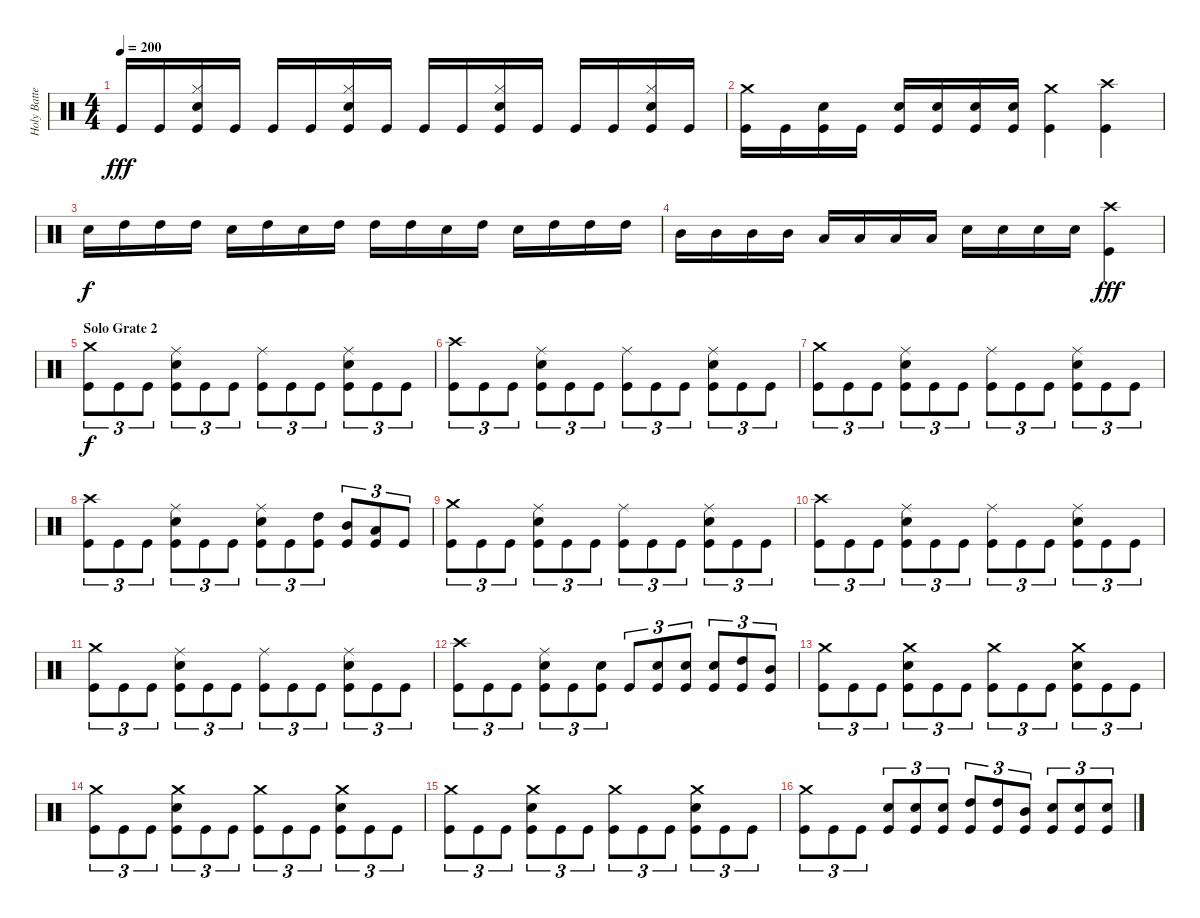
\track ("Holy Batteur" "Holy Batte") {instrument percussion}
\staff {score}
\articulation defaults
\ts (4 4)
\tempo 200
\clef neutral
\ks c "Kick (hit)".16{dy fff} "Kick (hit)".16
("Hi-Hat (closed)" "Electric Snare (hit)" "Kick (hit)").16 "Kick (hit)".16 "Kick (hit)".16 "Kick (hit)".16 ("Hi-Hat (closed)" "Electric Snare (hit)" "Kick (hit)").16 "Kick (hit)".16 "Kick (hit)".16 "Kick (hit)".16 ("Hi-Hat (closed)" "Electric Snare (hit)" "Kick (hit)").16 "Kick (hit)".16 "Kick (hit)".16 "Kick (hit)".16 ("Hi-Hat (closed)" "Electric Snare (hit)" "Kick (hit)").16 "Kick (hit)".16 |
("Crash medium (hit)" "Kick (hit)").16 "Kick (hit)".16 ("Electric Snare (hit)" "Kick (hit)").16 "Kick (hit)".16 ("Electric Snare (hit)" "Kick (hit)").16 ("Electric Snare (hit)" "Kick (hit)").16 ("Electric Snare (hit)" "Kick (hit)").16 ("Electric Snare (hit)" "Kick (hit)").16 ("Crash medium (hit)" "Kick (hit)").4 ("Crash high (hit)" "Kick (hit)").4 |
"Electric Snare (hit)".16{dy f} "High Tom (hit)".16 "High Tom (hit)".16 "High Tom (hit)".16 "Electric Snare (hit)".16 "High Tom (hit)".16 "Electric Snare (hit)".16 "High Tom (hit)".16 "High Tom (hit)".16 "High Tom (hit)".16 "Electric Snare (hit)".16 "High Tom (hit)".16 "Electric Snare (hit)".16 "High Tom (hit)".16 "High Tom (hit)".16 "High Tom (hit)".16 |
"Mid Tom (hit)".16 "Mid Tom (hit)".16 "Mid Tom (hit)".16 "Mid Tom (hit)".16 "Low Tom (hit)".16 "Low Tom (hit)".16 "Low Tom (hit)".16 "Low Tom (hit)".16 "Electric Snare (hit)".16 "Electric Snare (hit)".16 "Electric Snare (hit)".16 "Electric Snare (hit)".16 ("Crash high (hit)" "Kick (hit)").4{dy fff} |
\section ("" "Solo Grate 2")
("Crash medium (hit)" "Kick (hit)").8{tu (3 2) dy f} "Kick (hit)".8{tu (3 2)} "Kick (hit)".8{tu (3 2)} ("Ride (middle)" "Electric Snare (hit)" "Kick (hit)").8{tu (3 2)} "Kick (hit)".8{tu (3 2)} "Kick (hit)".8{tu (3 2)} ("Ride (middle)" "Kick (hit)").8{tu (3 2)} "Kick (hit)".8{tu (3 2)} "Kick (hit)".8{tu (3 2)} ("Ride (middle)" "Electric Snare (hit)" "Kick (hit)").8{tu (3 2)} "Kick (hit)".8{tu (3 2)} "Kick (hit)".8{tu (3 2)} |
("Crash high (hit)" "Kick (hit)").8{tu (3 2)} "Kick (hit)".8{tu (3 2)} "Kick (hit)".8{tu (3 2)} ("Ride (middle)" "Electric Snare (hit)" "Kick (hit)").8{tu (3 2)} "Kick (hit)".8{tu (3 2)} "Kick (hit)".8{tu (3 2)} ("Ride (middle)" "Kick (hit)").8{tu (3 2)} "Kick (hit)".8{tu (3 2)} "Kick (hit)".8{tu (3 2)} ("Ride (middle)" "Electric Snare (hit)" "Kick (hit)").8{tu (3 2)} "Kick (hit)".8{tu (3 2)} "Kick (hit)".8{tu (3 2)} |
("Crash medium (hit)" "Kick (hit)").8{tu (3 2)} "Kick (hit)".8{tu (3 2)} "Kick (hit)".8{tu (3 2)} ("Ride (middle)" "Electric Snare (hit)" "Kick (hit)").8{tu (3 2)} "Kick (hit)".8{tu (3 2)} "Kick (hit)".8{tu (3 2)} ("Ride (middle)" "Kick (hit)").8{tu (3 2)} "Kick (hit)".8{tu (3 2)} "Kick (hit)".8{tu (3 2)} ("Ride (middle)" "Electric Snare (hit)" "Kick (hit)").8{tu (3 2)} "Kick (hit)".8{tu (3 2)} "Kick (hit)".8{tu (3 2)} |
("Crash high (hit)" "Kick (hit)").8{tu (3 2)} "Kick (hit)".8{tu (3 2)} "Kick (hit)".8{tu (3 2)} ("Ride (middle)" "Electric Snare (hit)" "Kick (hit)").8{tu (3 2)} "Kick (hit)".8{tu (3 2)} "Kick (hit)".8{tu (3 2)} ("Ride (middle)" "Electric Snare (hit)" "Kick (hit)").8{tu (3 2)} "Kick (hit)".8{tu (3 2)} ("High Tom (hit)" "Kick (hit)").8{tu (3 2)} ("Mid Tom (hit)" "Kick (hit)").8{tu (3 2)} ("Low Tom (hit)" "Kick (hit)").8{tu (3 2)} "Kick (hit)".8{tu (3 2)} |
("Crash medium (hit)" "Kick (hit)").8{tu (3 2)} "Kick (hit)".8{tu (3 2)} "Kick (hit)".8{tu (3 2)} ("Ride (middle)" "Electric Snare (hit)" "Kick (hit)").8{tu (3 2)} "Kick (hit)".8{tu (3 2)} "Kick (hit)".8{tu (3 2)} ("Ride (middle)" "Kick (hit)").8{tu (3 2)} "Kick (hit)".8{tu (3 2)} "Kick (hit)".8{tu (3 2)} ("Ride (middle)" "Electric Snare (hit)" "Kick (hit)").8{tu (3 2)} "Kick (hit)".8{tu (3 2)} "Kick (hit)".8{tu (3 2)} |
("Crash high (hit)" "Kick (hit)").8{tu (3 2)} "Kick (hit)".8{tu (3 2)} "Kick (hit)".8{tu (3 2)} ("Ride (middle)" "Electric Snare (hit)" "Kick (hit)").8{tu (3 2)} "Kick (hit)".8{tu (3 2)} "Kick (hit)".8{tu (3 2)} ("Ride (middle)" "Kick (hit)").8{tu (3 2)} "Kick (hit)".8{tu (3 2)} "Kick (hit)".8{tu (3 2)} ("Ride (middle)" "Electric Snare (hit)" "Kick (hit)").8{tu (3 2)} "Kick (hit)".8{tu (3 2)} "Kick (hit)".8{tu (3 2)} |
("Crash medium (hit)" "Kick (hit)").8{tu (3 2)} "Kick (hit)".8{tu (3 2)} "Kick (hit)".8{tu (3 2)} ("Ride (middle)" "Electric Snare (hit)" "Kick (hit)").8{tu (3 2)} "Kick (hit)".8{tu (3 2)} "Kick (hit)".8{tu (3 2)} ("Ride (middle)" "Kick (hit)").8{tu (3 2)} "Kick (hit)".8{tu (3 2)} "Kick (hit)".8{tu (3 2)} ("Ride (middle)" "Electric Snare (hit)" "Kick (hit)").8{tu (3 2)} "Kick (hit)".8{tu (3 2)} "Kick (hit)".8{tu (3 2)} |
("Crash high (hit)" "Kick (hit)").8{tu (3 2)} "Kick (hit)".8{tu (3 2)} "Kick (hit)".8{tu (3 2)} ("Ride (middle)" "Electric Snare (hit)" "Kick (hit)").8{tu (3 2)} "Kick (hit)".8{tu (3 2)} ("Electric Snare (hit)" "Kick (hit)").8{tu (3 2)} "Kick (hit)".8{tu (3 2)} ("Electric Snare (hit)" "Kick (hit)").8{tu (3 2)} ("Electric Snare (hit)" "Kick (hit)").8{tu (3 2)} ("Electric Snare (hit)" "Kick (hit)").8{tu (3 2)} ("High Tom (hit)" "Kick (hit)").8{tu (3 2)} ("Mid Tom (hit)" "Kick (hit)").8{tu (3 2)} |
("Crash medium (hit)" "Kick (hit)").8{tu (3 2)} "Kick (hit)".8{tu (3 2)} "Kick (hit)".8{tu (3 2)} ("Crash medium (hit)" "Electric Snare (hit)" "Kick (hit)").8{tu (3 2)} "Kick (hit)".8{tu (3 2)} "Kick (hit)".8{tu (3 2)} ("Crash medium (hit)" "Kick (hit)").8{tu (3 2)} "Kick (hit)".8{tu (3 2)} "Kick (hit)".8{tu (3 2)} ("Crash medium (hit)" "Electric Snare (hit)" "Kick (hit)").8{tu (3 2)} "Kick (hit)".8{tu (3 2)} "Kick (hit)".8{tu (3 2)} |
("Crash medium (hit)" "Kick (hit)").8{tu (3 2)} "Kick (hit)".8{tu (3 2)} "Kick (hit)".8{tu (3 2)} ("Crash medium (hit)" "Electric Snare (hit)" "Kick (hit)").8{tu (3 2)} "Kick (hit)".8{tu (3 2)} "Kick (hit)".8{tu (3 2)} ("Crash medium (hit)" "Kick (hit)").8{tu (3 2)} "Kick (hit)".8{tu (3 2)} "Kick (hit)".8{tu (3 2)} ("Crash medium (hit)" "Electric Snare (hit)" "Kick (hit)").8{tu (3 2)} "Kick (hit)".8{tu (3 2)} "Kick (hit)".8{tu (3 2)} |
("Crash medium (hit)" "Kick (hit)").8{tu (3 2)} "Kick (hit)".8{tu (3 2)} "Kick (hit)".8{tu (3 2)} ("Crash medium (hit)" "Electric Snare (hit)" "Kick (hit)").8{tu (3 2)} "Kick (hit)".8{tu (3 2)} "Kick (hit)".8{tu (3 2)} ("Crash medium (hit)" "Kick (hit)").8{tu (3 2)} "Kick (hit)".8{tu (3 2)} "Kick (hit)".8{tu (3 2)} ("Crash medium (hit)" "Electric Snare (hit)" "Kick (hit)").8{tu (3 2)} "Kick (hit)".8{tu (3 2)} "Kick (hit)".8{tu (3 2)} |
("Crash medium (hit)" "Kick (hit)").8{tu (3 2)} "Kick (hit)".8{tu (3 2)} "Kick (hit)".8{tu (3 2)} ("Electric Snare (hit)" "Kick (hit)").8{tu (3 2)} ("Electric Snare (hit)" "Kick (hit)").8{tu (3 2)} ("Electric Snare (hit)" "Kick (hit)").8{tu (3 2)} ("High Tom (hit)" "Kick (hit)").8{tu (3 2)} ("High Tom (hit)" "Kick (hit)").8{tu (3 2)} ("Mid Tom (hit)" "Kick (hit)").8{tu (3 2)} ("Electric Snare (hit)" "Kick (hit)").8{tu (3 2)} ("Electric Snare (hit)" "Kick (hit)").8{tu (3 2)} ("Electric Snare (hit)" "Kick (hit)").8{tu (3 2)}
